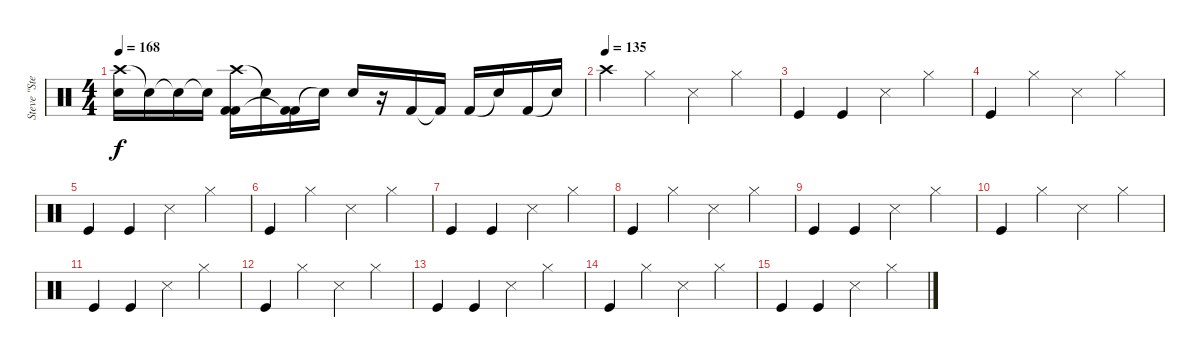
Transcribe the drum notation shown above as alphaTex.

\track ("Steve \"Stevo 32\" Jocz" "Steve \"Ste") {instrument percussion}
\staff {score}
\articulation defaults
\ts (4 4)
\tempo 168
\clef neutral
\ks c
("Crash high (hit)" "Snare (hit) 2").16{dy f} "Snare (hit)"{t}.16 "Snare (hit)"{t}.16 "Snare (hit)"{t}.16 ("Crash high (hit)" "Kick (hit) 2" "Kick (hit) 2"{t}).16 "Snare (hit)"{t}.16 ("Kick (hit) 2" "Kick (hit) 2"{t}).16 "Snare (hit)"{t}.16 "Snare (hit) 2".16 r.16 "Kick (hit) 2".16 "Kick (hit) 2"{t}.16 "Kick (hit) 2".16 "Snare (hit)"{t}.16 "Kick (hit) 2".16 "Snare (hit)"{t}.16 |
\tempo 200
\tempo (135)
"Crash high (hit)".4 "Hi-Hat (closed)".4 "Snare (side stick) 3".4 "Hi-Hat (closed)".4 |
"Kick (hit)".4 "Kick (hit)".4 "Snare (side stick) 3".4 "Hi-Hat (closed)".4 |
"Kick (hit)".4 "Hi-Hat (closed)".4 "Snare (side stick) 3".4 "Hi-Hat (closed)".4 |
"Kick (hit)".4 "Kick (hit)".4 "Snare (side stick) 3".4 "Hi-Hat (closed)".4 |
"Kick (hit)".4 "Hi-Hat (closed)".4 "Snare (side stick) 3".4 "Hi-Hat (closed)".4 |
"Kick (hit)".4 "Kick (hit)".4 "Snare (side stick) 3".4 "Hi-Hat (closed)".4 |
"Kick (hit)".4 "Hi-Hat (closed)".4 "Snare (side stick) 3".4 "Hi-Hat (closed)".4 |
"Kick (hit)".4 "Kick (hit)".4 "Snare (side stick) 3".4 "Hi-Hat (closed)".4 |
"Kick (hit)".4 "Hi-Hat (closed)".4 "Snare (side stick) 3".4 "Hi-Hat (closed)".4 |
"Kick (hit)".4 "Kick (hit)".4 "Snare (side stick) 3".4 "Hi-Hat (closed)".4 |
"Kick (hit)".4 "Hi-Hat (closed)".4 "Snare (side stick) 3".4 "Hi-Hat (closed)".4 |
"Kick (hit)".4 "Kick (hit)".4 "Snare (side stick) 3".4 "Hi-Hat (closed)".4 |
"Kick (hit)".4 "Hi-Hat (closed)".4 "Snare (side stick) 3".4 "Hi-Hat (closed)".4 |
"Kick (hit)".4 "Kick (hit)".4 "Snare (side stick) 3".4 "Hi-Hat (closed)".4
